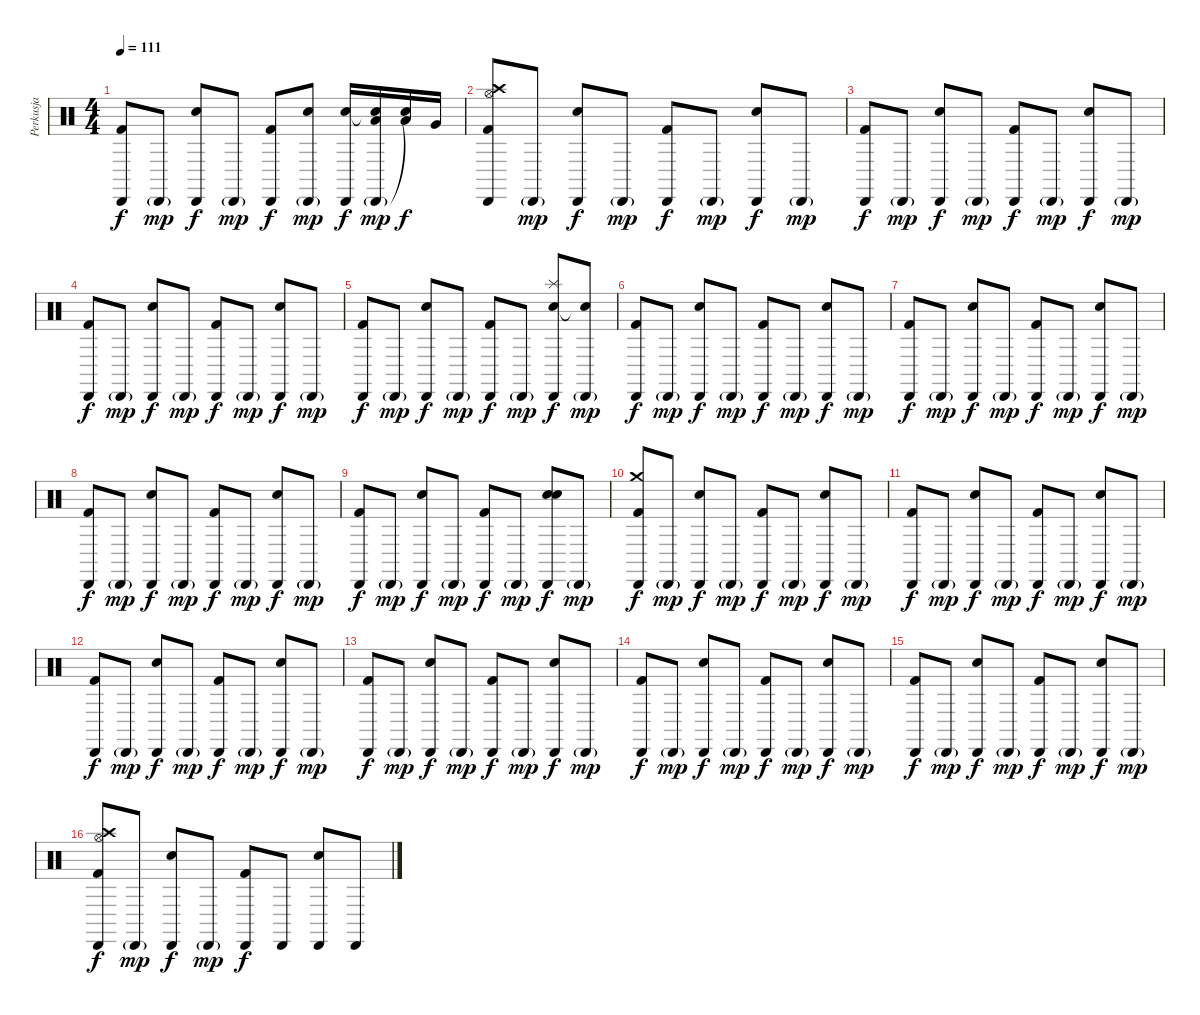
\track ("Perkusja" "Perkusja") {instrument percussion}
\staff {score}
\articulation defaults
\ts (4 4)
\tempo 111
\clef neutral
\ks c
("Cabasa (hit)" "Kick (hit) 2").8{dy f} "Cabasa (hit)"{g}.8{dy mp} ("Cabasa (hit)" "Snare (hit) 2").8{dy f} "Cabasa (hit)"{g}.8{dy mp} ("Cabasa (hit)" "Kick (hit) 2").8{dy f} ("Cabasa (hit)"{g} "Snare (hit) 2").8{dy mp} ("Cabasa (hit)" "Snare (hit) 2").16{dy f} ("Cabasa (hit)"{g} "Snare (hit)"{t} "Low Tom (hit)").16{dy mp} ("Snare (hit)"{t} "Low Tom (hit)").16{dy f} "Very Low Tom (hit)".16 |
("Cabasa (hit)" "Kick (hit) 2" "Hi-Hat (open)" "Crash high (hit)").8 "Cabasa (hit)"{g}.8{dy mp} ("Cabasa (hit)" "Snare (hit) 2").8{dy f} "Cabasa (hit)"{g}.8{dy mp} ("Cabasa (hit)" "Kick (hit) 2").8{dy f} "Cabasa (hit)"{g}.8{dy mp} ("Cabasa (hit)" "Snare (hit) 2").8{dy f} "Cabasa (hit)"{g}.8{dy mp} |
("Cabasa (hit)" "Kick (hit) 2").8{dy f} "Cabasa (hit)"{g}.8{dy mp} ("Cabasa (hit)" "Snare (hit) 2").8{dy f} "Cabasa (hit)"{g}.8{dy mp} ("Cabasa (hit)" "Kick (hit) 2").8{dy f} "Cabasa (hit)"{g}.8{dy mp} ("Cabasa (hit)" "Snare (hit) 2").8{dy f} "Cabasa (hit)"{g}.8{dy mp} |
("Cabasa (hit)" "Kick (hit) 2").8{dy f} "Cabasa (hit)"{g}.8{dy mp} ("Cabasa (hit)" "Snare (hit) 2").8{dy f} "Cabasa (hit)"{g}.8{dy mp} ("Cabasa (hit)" "Kick (hit) 2").8{dy f} "Cabasa (hit)"{g}.8{dy mp} ("Cabasa (hit)" "Snare (hit) 2").8{dy f} "Cabasa (hit)"{g}.8{dy mp} |
("Cabasa (hit)" "Kick (hit) 2").8{dy f} "Cabasa (hit)"{g}.8{dy mp} ("Cabasa (hit)" "Snare (hit) 2").8{dy f} "Cabasa (hit)"{g}.8{dy mp} ("Cabasa (hit)" "Kick (hit) 2").8{dy f} "Cabasa (hit)"{g}.8{dy mp} ("Cabasa (hit)" "Snare (hit) 2" "Splash (hit)").8{dy f} ("Cabasa (hit)"{g} "Snare (hit)"{t}).8{dy mp} |
("Cabasa (hit)" "Kick (hit) 2").8{dy f} "Cabasa (hit)"{g}.8{dy mp} ("Cabasa (hit)" "Snare (hit) 2").8{dy f} "Cabasa (hit)"{g}.8{dy mp} ("Cabasa (hit)" "Kick (hit) 2").8{dy f} "Cabasa (hit)"{g}.8{dy mp} ("Cabasa (hit)" "Snare (hit) 2").8{dy f} "Cabasa (hit)"{g}.8{dy mp} |
("Cabasa (hit)" "Kick (hit) 2").8{dy f} "Cabasa (hit)"{g}.8{dy mp} ("Cabasa (hit)" "Snare (hit) 2").8{dy f} "Cabasa (hit)"{g}.8{dy mp} ("Cabasa (hit)" "Kick (hit) 2").8{dy f} "Cabasa (hit)"{g}.8{dy mp} ("Cabasa (hit)" "Snare (hit) 2").8{dy f} "Cabasa (hit)"{g}.8{dy mp} |
("Cabasa (hit)" "Kick (hit) 2").8{dy f} "Cabasa (hit)"{g}.8{dy mp} ("Cabasa (hit)" "Snare (hit) 2").8{dy f} "Cabasa (hit)"{g}.8{dy mp} ("Cabasa (hit)" "Kick (hit) 2").8{dy f} "Cabasa (hit)"{g}.8{dy mp} ("Cabasa (hit)" "Snare (hit) 2").8{dy f} "Cabasa (hit)"{g}.8{dy mp} |
("Cabasa (hit)" "Kick (hit) 2").8{dy f} "Cabasa (hit)"{g}.8{dy mp} ("Cabasa (hit)" "Snare (hit) 2").8{dy f} "Cabasa (hit)"{g}.8{dy mp} ("Cabasa (hit)" "Kick (hit) 2").8{dy f} "Cabasa (hit)"{g}.8{dy mp} ("Cabasa (hit)" "Snare (hit) 2" "Snare (hit) 2").8{dy f} "Cabasa (hit)"{g}.8{dy mp} |
("Cabasa (hit)" "Kick (hit) 2" "Crash medium (hit)").8{dy f} "Cabasa (hit)"{g}.8{dy mp} ("Cabasa (hit)" "Snare (hit) 2").8{dy f} "Cabasa (hit)"{g}.8{dy mp} ("Cabasa (hit)" "Kick (hit) 2").8{dy f} "Cabasa (hit)"{g}.8{dy mp} ("Cabasa (hit)" "Snare (hit) 2").8{dy f} "Cabasa (hit)"{g}.8{dy mp} |
("Cabasa (hit)" "Kick (hit) 2").8{dy f} "Cabasa (hit)"{g}.8{dy mp} ("Cabasa (hit)" "Snare (hit) 2").8{dy f} "Cabasa (hit)"{g}.8{dy mp} ("Cabasa (hit)" "Kick (hit) 2").8{dy f} "Cabasa (hit)"{g}.8{dy mp} ("Cabasa (hit)" "Snare (hit) 2").8{dy f} "Cabasa (hit)"{g}.8{dy mp} |
("Cabasa (hit)" "Kick (hit) 2").8{dy f} "Cabasa (hit)"{g}.8{dy mp} ("Cabasa (hit)" "Snare (hit) 2").8{dy f} "Cabasa (hit)"{g}.8{dy mp} ("Cabasa (hit)" "Kick (hit) 2").8{dy f} "Cabasa (hit)"{g}.8{dy mp} ("Cabasa (hit)" "Snare (hit) 2").8{dy f} "Cabasa (hit)"{g}.8{dy mp} |
("Cabasa (hit)" "Kick (hit) 2").8{dy f} "Cabasa (hit)"{g}.8{dy mp} ("Cabasa (hit)" "Snare (hit) 2").8{dy f} "Cabasa (hit)"{g}.8{dy mp} ("Cabasa (hit)" "Kick (hit) 2").8{dy f} "Cabasa (hit)"{g}.8{dy mp} ("Cabasa (hit)" "Snare (hit) 2").8{dy f} "Cabasa (hit)"{g}.8{dy mp} |
("Cabasa (hit)" "Kick (hit) 2").8{dy f} "Cabasa (hit)"{g}.8{dy mp} ("Cabasa (hit)" "Snare (hit) 2").8{dy f} "Cabasa (hit)"{g}.8{dy mp} ("Cabasa (hit)" "Kick (hit) 2").8{dy f} "Cabasa (hit)"{g}.8{dy mp} ("Cabasa (hit)" "Snare (hit) 2").8{dy f} "Cabasa (hit)"{g}.8{dy mp} |
("Cabasa (hit)" "Kick (hit) 2").8{dy f} "Cabasa (hit)"{g}.8{dy mp} ("Cabasa (hit)" "Snare (hit) 2").8{dy f} "Cabasa (hit)"{g}.8{dy mp} ("Cabasa (hit)" "Kick (hit) 2").8{dy f} "Cabasa (hit)"{g}.8{dy mp} ("Cabasa (hit)" "Snare (hit) 2").8{dy f} "Cabasa (hit)"{g}.8{dy mp} |
("Cabasa (hit)" "Kick (hit) 2" "Hi-Hat (open)" "Crash high (hit)").8{dy f} "Cabasa (hit)"{g}.8{dy mp} ("Cabasa (hit)" "Snare (hit) 2").8{dy f} "Cabasa (hit)"{g}.8{dy mp} ("Cabasa (hit)" "Kick (hit) 2").8{dy f} "Cabasa (hit)".8 ("Cabasa (hit)" "Snare (hit) 2").8 "Cabasa (hit)".8
